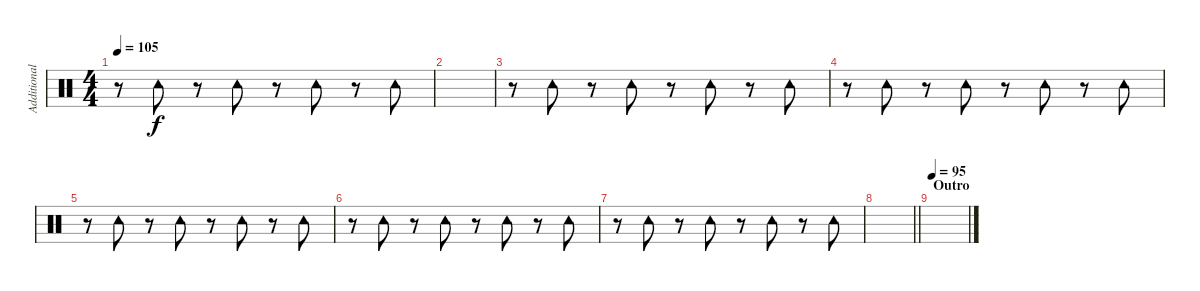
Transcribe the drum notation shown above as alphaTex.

\track ("Additional percussion" "Additional") {instrument percussion}
\staff {score}
\articulation defaults
\ts (4 4)
\tempo 105
\clef neutral
\ks c
r.8{dy f} "Tambourine (hit)".8 r.8 "Tambourine (hit)".8 r.8 "Tambourine (hit)".8 r.8 "Tambourine (hit)".8 |
|
r.8 "Tambourine (hit)".8 r.8 "Tambourine (hit)".8 r.8 "Tambourine (hit)".8 r.8 "Tambourine (hit)".8 |
r.8 "Tambourine (hit)".8 r.8 "Tambourine (hit)".8 r.8 "Tambourine (hit)".8 r.8 "Tambourine (hit)".8 |
r.8 "Tambourine (hit)".8 r.8 "Tambourine (hit)".8 r.8 "Tambourine (hit)".8 r.8 "Tambourine (hit)".8 |
r.8 "Tambourine (hit)".8 r.8 "Tambourine (hit)".8 r.8 "Tambourine (hit)".8 r.8 "Tambourine (hit)".8 |
r.8 "Tambourine (hit)".8 r.8 "Tambourine (hit)".8 r.8 "Tambourine (hit)".8 r.8 "Tambourine (hit)".8 |
\barLineRight lightlight
|
\section ("" "Outro")
\tempo 95
